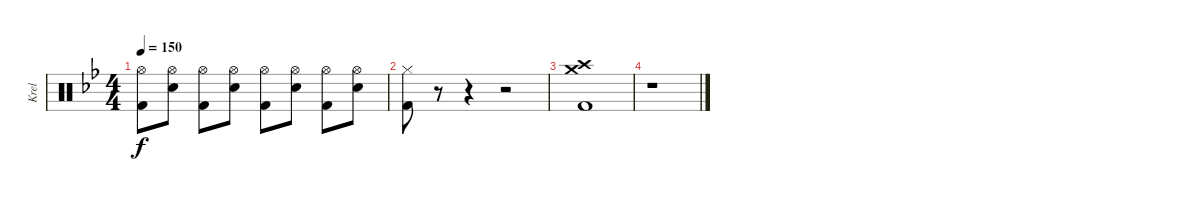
\track ("Krel" "Krel") {instrument percussion}
\staff {score}
\articulation defaults
\ts (4 4)
\tempo 150
\clef neutral
\ks bb
("Hi-Hat (open)" "Kick (hit) 2").8{dy f} ("Hi-Hat (open)" "Snare (hit) 2").8 ("Hi-Hat (open)" "Kick (hit) 2").8 ("Hi-Hat (open)" "Snare (hit) 2").8 ("Hi-Hat (open)" "Kick (hit) 2").8 ("Hi-Hat (open)" "Snare (hit) 2").8 ("Hi-Hat (open)" "Kick (hit) 2").8 ("Hi-Hat (open)" "Snare (hit) 2").8 |
("Hi-Hat (closed)" "Kick (hit) 2").8 r.8 r.4 r.2 |
("Crash high (hit)" "Crash medium (hit)" "Kick (hit) 2").1 |
r.1
